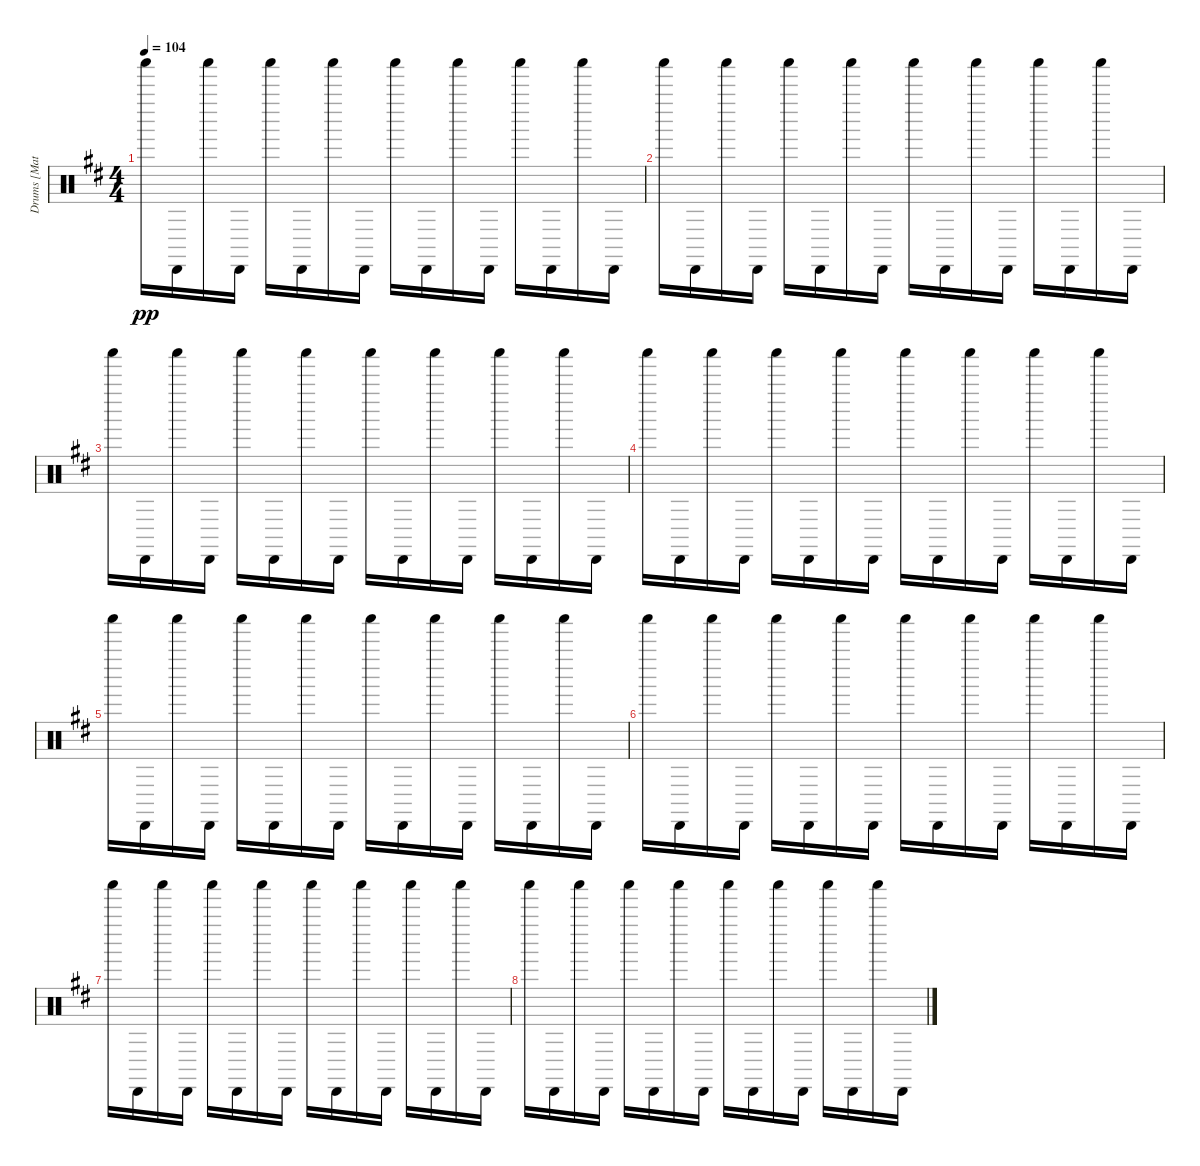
\track ("Drums [Matt]" "Drums [Mat") {instrument percussion}
\staff {score}
\articulation defaults
\ts (4 4)
\tempo 104
\clef neutral
\ks d "Shaker (hit)".16{dy pp volume 13} "Cabasa (hit)".16 "Shaker (hit)".16 "Cabasa (hit)".16 "Shaker (hit)".16 "Cabasa (hit)".16 "Shaker (hit)".16 "Cabasa (hit)".16 "Shaker (hit)".16 "Cabasa (hit)".16 "Shaker (hit)".16 "Cabasa (hit)".16 "Shaker (hit)".16 "Cabasa (hit)".16 "Shaker (hit)".16 "Cabasa (hit)".16
|
"Shaker (hit)".16 "Cabasa (hit)".16 "Shaker (hit)".16 "Cabasa (hit)".16 "Shaker (hit)".16 "Cabasa (hit)".16 "Shaker (hit)".16 "Cabasa (hit)".16 "Shaker (hit)".16 "Cabasa (hit)".16 "Shaker (hit)".16 "Cabasa (hit)".16 "Shaker (hit)".16 "Cabasa (hit)".16 "Shaker (hit)".16 "Cabasa (hit)".16 |
"Shaker (hit)".16 "Cabasa (hit)".16 "Shaker (hit)".16 "Cabasa (hit)".16 "Shaker (hit)".16 "Cabasa (hit)".16 "Shaker (hit)".16 "Cabasa (hit)".16 "Shaker (hit)".16 "Cabasa (hit)".16 "Shaker (hit)".16 "Cabasa (hit)".16 "Shaker (hit)".16 "Cabasa (hit)".16 "Shaker (hit)".16 "Cabasa (hit)".16 |
"Shaker (hit)".16 "Cabasa (hit)".16 "Shaker (hit)".16 "Cabasa (hit)".16 "Shaker (hit)".16 "Cabasa (hit)".16 "Shaker (hit)".16 "Cabasa (hit)".16 "Shaker (hit)".16 "Cabasa (hit)".16 "Shaker (hit)".16 "Cabasa (hit)".16 "Shaker (hit)".16 "Cabasa (hit)".16 "Shaker (hit)".16 "Cabasa (hit)".16 |
"Shaker (hit)".16 "Cabasa (hit)".16 "Shaker (hit)".16 "Cabasa (hit)".16 "Shaker (hit)".16 "Cabasa (hit)".16 "Shaker (hit)".16 "Cabasa (hit)".16 "Shaker (hit)".16 "Cabasa (hit)".16 "Shaker (hit)".16 "Cabasa (hit)".16 "Shaker (hit)".16 "Cabasa (hit)".16 "Shaker (hit)".16 "Cabasa (hit)".16 |
"Shaker (hit)".16 "Cabasa (hit)".16 "Shaker (hit)".16 "Cabasa (hit)".16 "Shaker (hit)".16 "Cabasa (hit)".16 "Shaker (hit)".16 "Cabasa (hit)".16 "Shaker (hit)".16 "Cabasa (hit)".16 "Shaker (hit)".16 "Cabasa (hit)".16 "Shaker (hit)".16 "Cabasa (hit)".16 "Shaker (hit)".16 "Cabasa (hit)".16 |
"Shaker (hit)".16 "Cabasa (hit)".16 "Shaker (hit)".16 "Cabasa (hit)".16 "Shaker (hit)".16 "Cabasa (hit)".16 "Shaker (hit)".16 "Cabasa (hit)".16 "Shaker (hit)".16 "Cabasa (hit)".16 "Shaker (hit)".16 "Cabasa (hit)".16 "Shaker (hit)".16 "Cabasa (hit)".16 "Shaker (hit)".16 "Cabasa (hit)".16 |
"Shaker (hit)".16 "Cabasa (hit)".16 "Shaker (hit)".16 "Cabasa (hit)".16 "Shaker (hit)".16 "Cabasa (hit)".16 "Shaker (hit)".16 "Cabasa (hit)".16 "Shaker (hit)".16 "Cabasa (hit)".16 "Shaker (hit)".16 "Cabasa (hit)".16 "Shaker (hit)".16 "Cabasa (hit)".16 "Shaker (hit)".16 "Cabasa (hit)".16
